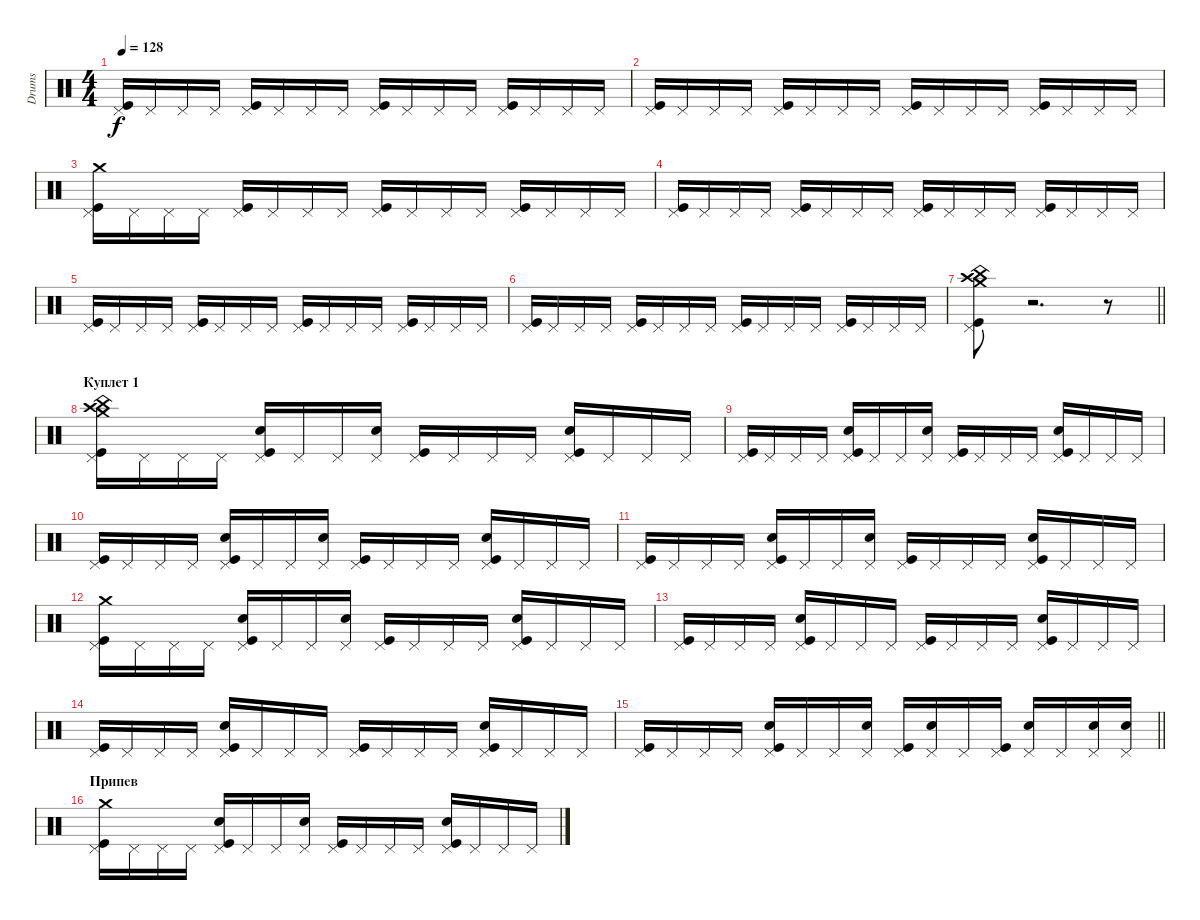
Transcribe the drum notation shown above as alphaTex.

\track ("Drums" "Drums") {instrument percussion}
\staff {score}
\articulation defaults
\ts (4 4)
\tempo 128
\clef neutral
\ks c
("Kick (hit)" "Pedal Hi-Hat (hit)").16{dy f} "Pedal Hi-Hat (hit)".16 "Pedal Hi-Hat (hit)".16 "Pedal Hi-Hat (hit)".16 ("Kick (hit)" "Pedal Hi-Hat (hit)").16 "Pedal Hi-Hat (hit)".16 "Pedal Hi-Hat (hit)".16 "Pedal Hi-Hat (hit)".16 ("Kick (hit)" "Pedal Hi-Hat (hit)").16 "Pedal Hi-Hat (hit)".16 "Pedal Hi-Hat (hit)".16 "Pedal Hi-Hat (hit)".16 ("Kick (hit)" "Pedal Hi-Hat (hit)").16 "Pedal Hi-Hat (hit)".16 "Pedal Hi-Hat (hit)".16 "Pedal Hi-Hat (hit)".16 |
("Kick (hit)" "Pedal Hi-Hat (hit)").16 "Pedal Hi-Hat (hit)".16 "Pedal Hi-Hat (hit)".16 "Pedal Hi-Hat (hit)".16 ("Kick (hit)" "Pedal Hi-Hat (hit)").16 "Pedal Hi-Hat (hit)".16 "Pedal Hi-Hat (hit)".16 "Pedal Hi-Hat (hit)".16 ("Kick (hit)" "Pedal Hi-Hat (hit)").16 "Pedal Hi-Hat (hit)".16 "Pedal Hi-Hat (hit)".16 "Pedal Hi-Hat (hit)".16 ("Kick (hit)" "Pedal Hi-Hat (hit)").16 "Pedal Hi-Hat (hit)".16 "Pedal Hi-Hat (hit)".16 "Pedal Hi-Hat (hit)".16 |
("Kick (hit)" "Pedal Hi-Hat (hit)" "Crash medium (hit)").16 "Pedal Hi-Hat (hit)".16 "Pedal Hi-Hat (hit)".16 "Pedal Hi-Hat (hit)".16 ("Kick (hit)" "Pedal Hi-Hat (hit)").16 "Pedal Hi-Hat (hit)".16 "Pedal Hi-Hat (hit)".16 "Pedal Hi-Hat (hit)".16 ("Kick (hit)" "Pedal Hi-Hat (hit)").16 "Pedal Hi-Hat (hit)".16 "Pedal Hi-Hat (hit)".16 "Pedal Hi-Hat (hit)".16 ("Kick (hit)" "Pedal Hi-Hat (hit)").16 "Pedal Hi-Hat (hit)".16 "Pedal Hi-Hat (hit)".16 "Pedal Hi-Hat (hit)".16 |
("Kick (hit)" "Pedal Hi-Hat (hit)").16 "Pedal Hi-Hat (hit)".16 "Pedal Hi-Hat (hit)".16 "Pedal Hi-Hat (hit)".16 ("Kick (hit)" "Pedal Hi-Hat (hit)").16 "Pedal Hi-Hat (hit)".16 "Pedal Hi-Hat (hit)".16 "Pedal Hi-Hat (hit)".16 ("Kick (hit)" "Pedal Hi-Hat (hit)").16 "Pedal Hi-Hat (hit)".16 "Pedal Hi-Hat (hit)".16 "Pedal Hi-Hat (hit)".16 ("Kick (hit)" "Pedal Hi-Hat (hit)").16 "Pedal Hi-Hat (hit)".16 "Pedal Hi-Hat (hit)".16 "Pedal Hi-Hat (hit)".16 |
("Kick (hit)" "Pedal Hi-Hat (hit)").16 "Pedal Hi-Hat (hit)".16 "Pedal Hi-Hat (hit)".16 "Pedal Hi-Hat (hit)".16 ("Kick (hit)" "Pedal Hi-Hat (hit)").16 "Pedal Hi-Hat (hit)".16 "Pedal Hi-Hat (hit)".16 "Pedal Hi-Hat (hit)".16 ("Kick (hit)" "Pedal Hi-Hat (hit)").16 "Pedal Hi-Hat (hit)".16 "Pedal Hi-Hat (hit)".16 "Pedal Hi-Hat (hit)".16 ("Kick (hit)" "Pedal Hi-Hat (hit)").16 "Pedal Hi-Hat (hit)".16 "Pedal Hi-Hat (hit)".16 "Pedal Hi-Hat (hit)".16 |
("Kick (hit)" "Pedal Hi-Hat (hit)").16 "Pedal Hi-Hat (hit)".16 "Pedal Hi-Hat (hit)".16 "Pedal Hi-Hat (hit)".16 ("Kick (hit)" "Pedal Hi-Hat (hit)").16 "Pedal Hi-Hat (hit)".16 "Pedal Hi-Hat (hit)".16 "Pedal Hi-Hat (hit)".16 ("Kick (hit)" "Pedal Hi-Hat (hit)").16 "Pedal Hi-Hat (hit)".16 "Pedal Hi-Hat (hit)".16 "Pedal Hi-Hat (hit)".16 ("Kick (hit)" "Pedal Hi-Hat (hit)").16 "Pedal Hi-Hat (hit)".16 "Pedal Hi-Hat (hit)".16 "Pedal Hi-Hat (hit)".16 |
\barLineRight lightlight
("Kick (hit)" "Pedal Hi-Hat (hit)" "Crash medium (hit)" "China (hit)" "Crash high (hit)").8 r.2{d} r.8 |
\section ("" "Куплет 1")
("Kick (hit)" "Pedal Hi-Hat (hit)" "Crash medium (hit)" "China (hit)" "Crash high (hit)").16 "Pedal Hi-Hat (hit)".16 "Pedal Hi-Hat (hit)".16 "Pedal Hi-Hat (hit)".16 ("Kick (hit)" "Pedal Hi-Hat (hit)" "Snare (hit) 2").16 "Pedal Hi-Hat (hit)".16 "Pedal Hi-Hat (hit)".16 ("Pedal Hi-Hat (hit)" "Snare (hit) 2").16 ("Kick (hit)" "Pedal Hi-Hat (hit)").16 "Pedal Hi-Hat (hit)".16 "Pedal Hi-Hat (hit)".16 "Pedal Hi-Hat (hit)".16 ("Kick (hit)" "Pedal Hi-Hat (hit)" "Snare (hit) 2").16 "Pedal Hi-Hat (hit)".16 "Pedal Hi-Hat (hit)".16 "Pedal Hi-Hat (hit)".16 |
("Kick (hit)" "Pedal Hi-Hat (hit)").16 "Pedal Hi-Hat (hit)".16 "Pedal Hi-Hat (hit)".16 "Pedal Hi-Hat (hit)".16 ("Kick (hit)" "Pedal Hi-Hat (hit)" "Snare (hit) 2").16 "Pedal Hi-Hat (hit)".16 "Pedal Hi-Hat (hit)".16 ("Pedal Hi-Hat (hit)" "Snare (hit) 2").16 ("Kick (hit)" "Pedal Hi-Hat (hit)").16 "Pedal Hi-Hat (hit)".16 "Pedal Hi-Hat (hit)".16 "Pedal Hi-Hat (hit)".16 ("Kick (hit)" "Pedal Hi-Hat (hit)" "Snare (hit) 2").16 "Pedal Hi-Hat (hit)".16 "Pedal Hi-Hat (hit)".16 "Pedal Hi-Hat (hit)".16 |
("Kick (hit)" "Pedal Hi-Hat (hit)").16 "Pedal Hi-Hat (hit)".16 "Pedal Hi-Hat (hit)".16 "Pedal Hi-Hat (hit)".16 ("Kick (hit)" "Pedal Hi-Hat (hit)" "Snare (hit) 2").16 "Pedal Hi-Hat (hit)".16 "Pedal Hi-Hat (hit)".16 ("Pedal Hi-Hat (hit)" "Snare (hit) 2").16 ("Kick (hit)" "Pedal Hi-Hat (hit)").16 "Pedal Hi-Hat (hit)".16 "Pedal Hi-Hat (hit)".16 "Pedal Hi-Hat (hit)".16 ("Kick (hit)" "Pedal Hi-Hat (hit)" "Snare (hit) 2").16 "Pedal Hi-Hat (hit)".16 "Pedal Hi-Hat (hit)".16 "Pedal Hi-Hat (hit)".16 |
("Kick (hit)" "Pedal Hi-Hat (hit)").16 "Pedal Hi-Hat (hit)".16 "Pedal Hi-Hat (hit)".16 "Pedal Hi-Hat (hit)".16 ("Kick (hit)" "Pedal Hi-Hat (hit)" "Snare (hit) 2").16 "Pedal Hi-Hat (hit)".16 "Pedal Hi-Hat (hit)".16 ("Pedal Hi-Hat (hit)" "Snare (hit) 2").16 ("Kick (hit)" "Pedal Hi-Hat (hit)").16 "Pedal Hi-Hat (hit)".16 "Pedal Hi-Hat (hit)".16 "Pedal Hi-Hat (hit)".16 ("Kick (hit)" "Pedal Hi-Hat (hit)" "Snare (hit) 2").16 "Pedal Hi-Hat (hit)".16 "Pedal Hi-Hat (hit)".16 "Pedal Hi-Hat (hit)".16 |
("Kick (hit)" "Pedal Hi-Hat (hit)" "Crash medium (hit)").16 "Pedal Hi-Hat (hit)".16 "Pedal Hi-Hat (hit)".16 "Pedal Hi-Hat (hit)".16 ("Kick (hit)" "Pedal Hi-Hat (hit)" "Snare (hit) 2").16 "Pedal Hi-Hat (hit)".16 "Pedal Hi-Hat (hit)".16 ("Pedal Hi-Hat (hit)" "Snare (hit) 2").16 ("Kick (hit)" "Pedal Hi-Hat (hit)").16 "Pedal Hi-Hat (hit)".16 "Pedal Hi-Hat (hit)".16 "Pedal Hi-Hat (hit)".16 ("Kick (hit)" "Pedal Hi-Hat (hit)" "Snare (hit) 2").16 "Pedal Hi-Hat (hit)".16 "Pedal Hi-Hat (hit)".16 "Pedal Hi-Hat (hit)".16 |
("Kick (hit)" "Pedal Hi-Hat (hit)").16 "Pedal Hi-Hat (hit)".16 "Pedal Hi-Hat (hit)".16 "Pedal Hi-Hat (hit)".16 ("Kick (hit)" "Pedal Hi-Hat (hit)" "Snare (hit) 2").16 "Pedal Hi-Hat (hit)".16 "Pedal Hi-Hat (hit)".16 "Pedal Hi-Hat (hit)".16 ("Kick (hit)" "Pedal Hi-Hat (hit)").16 "Pedal Hi-Hat (hit)".16 "Pedal Hi-Hat (hit)".16 "Pedal Hi-Hat (hit)".16 ("Kick (hit)" "Pedal Hi-Hat (hit)" "Snare (hit) 2").16 "Pedal Hi-Hat (hit)".16 "Pedal Hi-Hat (hit)".16 "Pedal Hi-Hat (hit)".16 |
("Kick (hit)" "Pedal Hi-Hat (hit)").16 "Pedal Hi-Hat (hit)".16 "Pedal Hi-Hat (hit)".16 "Pedal Hi-Hat (hit)".16 ("Kick (hit)" "Pedal Hi-Hat (hit)" "Snare (hit) 2").16 "Pedal Hi-Hat (hit)".16 "Pedal Hi-Hat (hit)".16 "Pedal Hi-Hat (hit)".16 ("Kick (hit)" "Pedal Hi-Hat (hit)").16 "Pedal Hi-Hat (hit)".16 "Pedal Hi-Hat (hit)".16 "Pedal Hi-Hat (hit)".16 ("Kick (hit)" "Pedal Hi-Hat (hit)" "Snare (hit) 2").16 "Pedal Hi-Hat (hit)".16 "Pedal Hi-Hat (hit)".16 "Pedal Hi-Hat (hit)".16 |
\barLineRight lightlight
("Kick (hit)" "Pedal Hi-Hat (hit)").16 "Pedal Hi-Hat (hit)".16 "Pedal Hi-Hat (hit)".16 "Pedal Hi-Hat (hit)".16 ("Kick (hit)" "Pedal Hi-Hat (hit)" "Snare (hit) 2").16 "Pedal Hi-Hat (hit)".16 "Pedal Hi-Hat (hit)".16 ("Pedal Hi-Hat (hit)" "Snare (hit) 2").16 ("Kick (hit)" "Pedal Hi-Hat (hit)").16 ("Pedal Hi-Hat (hit)" "Snare (hit) 2").16 "Pedal Hi-Hat (hit)".16 ("Kick (hit)" "Pedal Hi-Hat (hit)").16 ("Pedal Hi-Hat (hit)" "Snare (hit) 2").16 "Pedal Hi-Hat (hit)".16 ("Pedal Hi-Hat (hit)" "Snare (hit) 2").16 ("Pedal Hi-Hat (hit)" "Snare (hit) 2").16 |
\section ("" "Припев")
("Kick (hit)" "Pedal Hi-Hat (hit)" "Crash medium (hit)").16 "Pedal Hi-Hat (hit)".16 "Pedal Hi-Hat (hit)".16 "Pedal Hi-Hat (hit)".16 ("Kick (hit)" "Pedal Hi-Hat (hit)" "Snare (hit) 2").16 "Pedal Hi-Hat (hit)".16 "Pedal Hi-Hat (hit)".16 ("Pedal Hi-Hat (hit)" "Snare (hit) 2").16 ("Kick (hit)" "Pedal Hi-Hat (hit)").16 "Pedal Hi-Hat (hit)".16 "Pedal Hi-Hat (hit)".16 "Pedal Hi-Hat (hit)".16 ("Kick (hit)" "Pedal Hi-Hat (hit)" "Snare (hit) 2").16 "Pedal Hi-Hat (hit)".16 "Pedal Hi-Hat (hit)".16 "Pedal Hi-Hat (hit)".16
